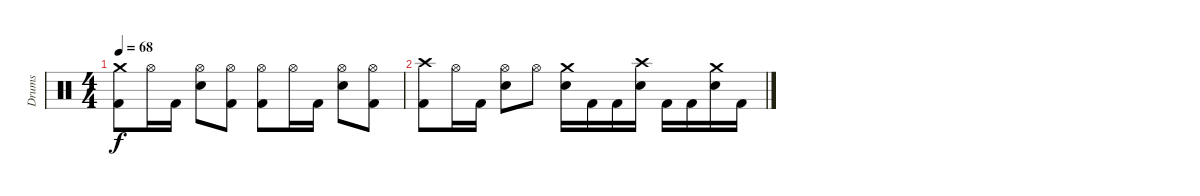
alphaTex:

\track ("Drums" "Drums") {instrument percussion}
\staff {score}
\articulation defaults
\ts (4 4)
\tempo 68
\clef neutral
\ks c
("Crash medium (hit)" "Kick (hit) 2").8{dy f} "Hi-Hat (open)".16 "Kick (hit) 2".16 ("Hi-Hat (open)" "Snare (hit) 2").8 ("Hi-Hat (open)" "Kick (hit) 2").8 ("Hi-Hat (open)" "Kick (hit) 2").8 "Hi-Hat (open)".16 "Kick (hit) 2".16 ("Hi-Hat (open)" "Snare (hit) 2").8 ("Hi-Hat (open)" "Kick (hit) 2").8 |
("Crash high (hit)" "Kick (hit) 2").8 "Hi-Hat (open)".16 "Kick (hit) 2".16 ("Hi-Hat (open)" "Snare (hit) 2").8 "Hi-Hat (open)".8 ("Crash medium (hit)" "Snare (hit) 2").16 "Kick (hit) 2".16 "Kick (hit) 2".16 ("Crash high (hit)" "Snare (hit) 2").16 "Kick (hit) 2".16 "Kick (hit) 2".16 ("Crash medium (hit)" "Snare (hit) 2").16 "Kick (hit) 2".16
